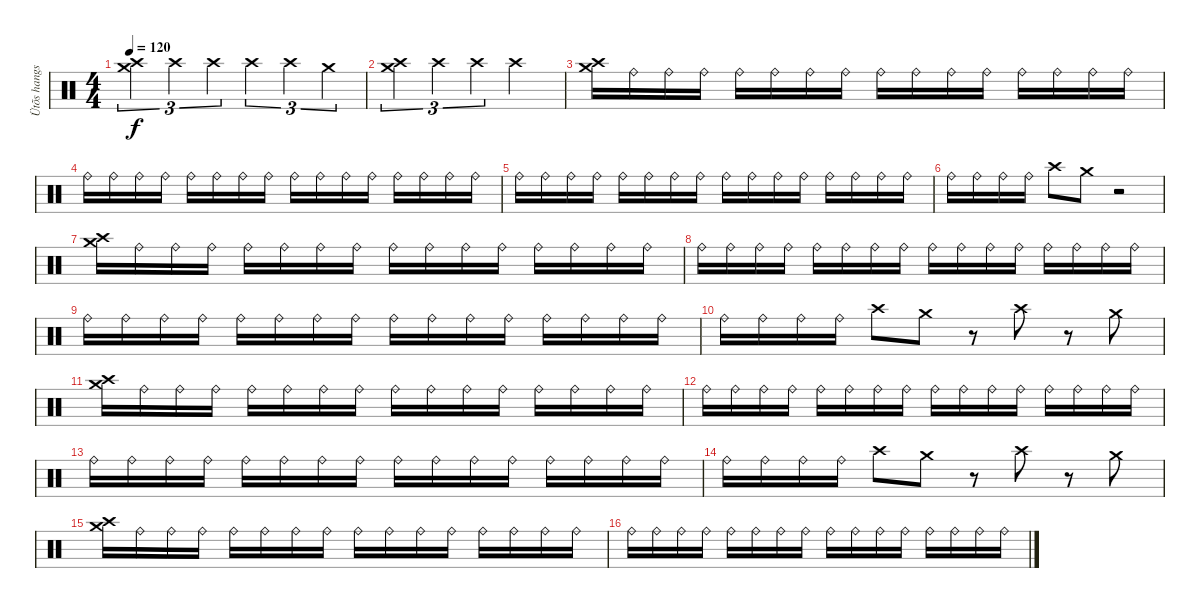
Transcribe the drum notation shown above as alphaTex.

\track ("Ütõs hangszer" "Ütõs hangs") {instrument percussion}
\staff {score}
\articulation defaults
\ts (4 4)
\tempo 120
\clef neutral
\ks c
("Crash medium (hit)" "Crash high (hit)").4{tu (3 2) dy f} "Crash high (hit)".4{tu (3 2)} "Crash high (hit)".4{tu (3 2)} "Crash high (hit)".4{tu (3 2)} "Crash high (hit)".4{tu (3 2)} "Crash medium (hit)".4{tu (3 2)} |
("Crash medium (hit)" "Crash high (hit)").4{tu (3 2)} "Crash high (hit)".4{tu (3 2)} "Crash high (hit)".4{tu (3 2)} "Crash high (hit)".2 |
("Crash medium (hit)" "Crash high (hit)").16 "Ride (bell)".16 "Ride (bell)".16 "Ride (bell)".16 "Ride (bell)".16 "Ride (bell)".16 "Ride (bell)".16 "Ride (bell)".16 "Ride (bell)".16 "Ride (bell)".16 "Ride (bell)".16 "Ride (bell)".16 "Ride (bell)".16 "Ride (bell)".16 "Ride (bell)".16 "Ride (bell)".16 |
"Ride (bell)".16 "Ride (bell)".16 "Ride (bell)".16 "Ride (bell)".16 "Ride (bell)".16 "Ride (bell)".16 "Ride (bell)".16 "Ride (bell)".16 "Ride (bell)".16 "Ride (bell)".16 "Ride (bell)".16 "Ride (bell)".16 "Ride (bell)".16 "Ride (bell)".16 "Ride (bell)".16 "Ride (bell)".16 |
"Ride (bell)".16 "Ride (bell)".16 "Ride (bell)".16 "Ride (bell)".16 "Ride (bell)".16 "Ride (bell)".16 "Ride (bell)".16 "Ride (bell)".16 "Ride (bell)".16 "Ride (bell)".16 "Ride (bell)".16 "Ride (bell)".16 "Ride (bell)".16 "Ride (bell)".16 "Ride (bell)".16 "Ride (bell)".16 |
"Ride (bell)".16 "Ride (bell)".16 "Ride (bell)".16 "Ride (bell)".16 "Crash high (hit)".8 "Crash medium (hit)".8 r.2 |
("Crash medium (hit)" "Crash high (hit)").16 "Ride (bell)".16 "Ride (bell)".16 "Ride (bell)".16 "Ride (bell)".16 "Ride (bell)".16 "Ride (bell)".16 "Ride (bell)".16 "Ride (bell)".16 "Ride (bell)".16 "Ride (bell)".16 "Ride (bell)".16 "Ride (bell)".16 "Ride (bell)".16 "Ride (bell)".16 "Ride (bell)".16 |
"Ride (bell)".16 "Ride (bell)".16 "Ride (bell)".16 "Ride (bell)".16 "Ride (bell)".16 "Ride (bell)".16 "Ride (bell)".16 "Ride (bell)".16 "Ride (bell)".16 "Ride (bell)".16 "Ride (bell)".16 "Ride (bell)".16 "Ride (bell)".16 "Ride (bell)".16 "Ride (bell)".16 "Ride (bell)".16 |
"Ride (bell)".16 "Ride (bell)".16 "Ride (bell)".16 "Ride (bell)".16 "Ride (bell)".16 "Ride (bell)".16 "Ride (bell)".16 "Ride (bell)".16 "Ride (bell)".16 "Ride (bell)".16 "Ride (bell)".16 "Ride (bell)".16 "Ride (bell)".16 "Ride (bell)".16 "Ride (bell)".16 "Ride (bell)".16 |
"Ride (bell)".16 "Ride (bell)".16 "Ride (bell)".16 "Ride (bell)".16 "Crash high (hit)".8 "Crash medium (hit)".8 r.8 "Crash high (hit)".8 r.8 "Crash medium (hit)".8 |
("Crash medium (hit)" "Crash high (hit)").16 "Ride (bell)".16 "Ride (bell)".16 "Ride (bell)".16 "Ride (bell)".16 "Ride (bell)".16 "Ride (bell)".16 "Ride (bell)".16 "Ride (bell)".16 "Ride (bell)".16 "Ride (bell)".16 "Ride (bell)".16 "Ride (bell)".16 "Ride (bell)".16 "Ride (bell)".16 "Ride (bell)".16 |
"Ride (bell)".16 "Ride (bell)".16 "Ride (bell)".16 "Ride (bell)".16 "Ride (bell)".16 "Ride (bell)".16 "Ride (bell)".16 "Ride (bell)".16 "Ride (bell)".16 "Ride (bell)".16 "Ride (bell)".16 "Ride (bell)".16 "Ride (bell)".16 "Ride (bell)".16 "Ride (bell)".16 "Ride (bell)".16 |
"Ride (bell)".16 "Ride (bell)".16 "Ride (bell)".16 "Ride (bell)".16 "Ride (bell)".16 "Ride (bell)".16 "Ride (bell)".16 "Ride (bell)".16 "Ride (bell)".16 "Ride (bell)".16 "Ride (bell)".16 "Ride (bell)".16 "Ride (bell)".16 "Ride (bell)".16 "Ride (bell)".16 "Ride (bell)".16 |
"Ride (bell)".16 "Ride (bell)".16 "Ride (bell)".16 "Ride (bell)".16 "Crash high (hit)".8 "Crash medium (hit)".8 r.8 "Crash high (hit)".8 r.8 "Crash medium (hit)".8 |
("Crash medium (hit)" "Crash high (hit)").16 "Ride (bell)".16 "Ride (bell)".16 "Ride (bell)".16 "Ride (bell)".16 "Ride (bell)".16 "Ride (bell)".16 "Ride (bell)".16 "Ride (bell)".16 "Ride (bell)".16 "Ride (bell)".16 "Ride (bell)".16 "Ride (bell)".16 "Ride (bell)".16 "Ride (bell)".16 "Ride (bell)".16 |
"Ride (bell)".16 "Ride (bell)".16 "Ride (bell)".16 "Ride (bell)".16 "Ride (bell)".16 "Ride (bell)".16 "Ride (bell)".16 "Ride (bell)".16 "Ride (bell)".16 "Ride (bell)".16 "Ride (bell)".16 "Ride (bell)".16 "Ride (bell)".16 "Ride (bell)".16 "Ride (bell)".16 "Ride (bell)".16
